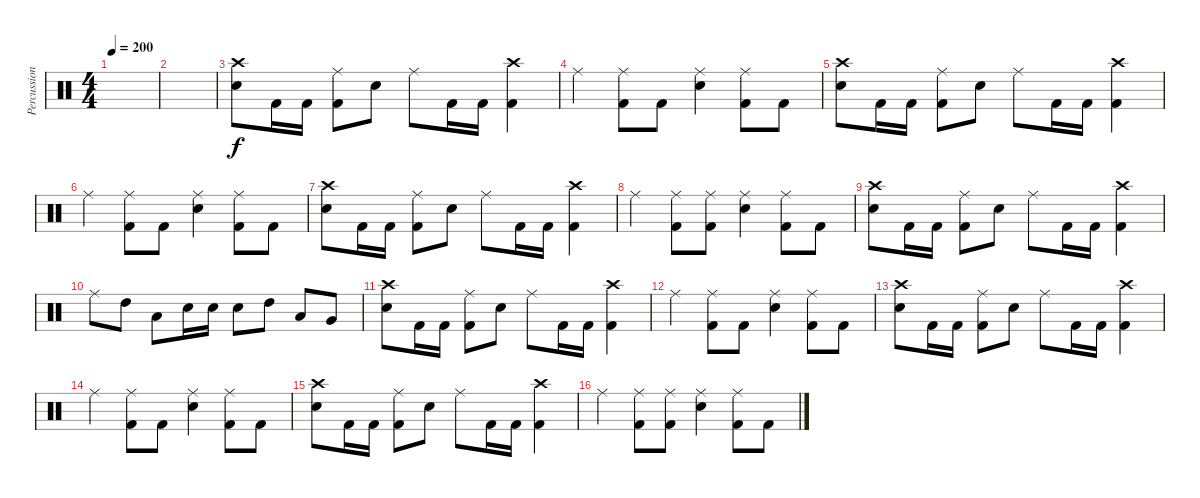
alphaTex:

\track ("Percussion" "Percussion") {instrument percussion}
\staff {score}
\articulation defaults
\ts (4 4)
\tempo 200
\clef neutral
\ks c
|
|
("Crash high (hit)" "Snare (hit) 2").8 "Kick (hit) 2".16 "Kick (hit) 2".16 ("Ride (middle)" "Kick (hit) 2").8 "Snare (hit) 2".8 "Ride (middle)".8 "Kick (hit) 2".16 "Kick (hit) 2".16 ("Crash high (hit)" "Kick (hit) 2").4 |
"Ride (middle)".4 ("Ride (middle)" "Kick (hit) 2").8 "Kick (hit) 2".8 ("Ride (middle)" "Snare (hit) 2").4 ("Ride (middle)" "Kick (hit) 2").8 "Kick (hit) 2".8 |
("Crash high (hit)" "Snare (hit) 2").8 "Kick (hit) 2".16 "Kick (hit) 2".16 ("Ride (middle)" "Kick (hit) 2").8 "Snare (hit) 2".8 "Ride (middle)".8 "Kick (hit) 2".16 "Kick (hit) 2".16 ("Crash high (hit)" "Kick (hit) 2").4 |
"Ride (middle)".4 ("Ride (middle)" "Kick (hit) 2").8 "Kick (hit) 2".8 ("Ride (middle)" "Snare (hit) 2").4 ("Ride (middle)" "Kick (hit) 2").8 "Kick (hit) 2".8 |
("Crash high (hit)" "Snare (hit) 2").8 "Kick (hit) 2".16 "Kick (hit) 2".16 ("Ride (middle)" "Kick (hit) 2").8 "Snare (hit) 2".8 "Ride (middle)".8 "Kick (hit) 2".16 "Kick (hit) 2".16 ("Crash high (hit)" "Kick (hit) 2").4 |
"Ride (middle)".4 ("Ride (middle)" "Kick (hit) 2").8 ("Ride (middle)" "Kick (hit) 2").8 ("Ride (middle)" "Snare (hit) 2").4 ("Ride (middle)" "Kick (hit) 2").8 "Kick (hit) 2".8 |
("Crash high (hit)" "Snare (hit) 2").8 "Kick (hit) 2".16 "Kick (hit) 2".16 ("Ride (middle)" "Kick (hit) 2").8 "Snare (hit) 2".8 "Ride (middle)".8 "Kick (hit) 2".16 "Kick (hit) 2".16 ("Crash high (hit)" "Kick (hit) 2").4 |
"Ride (middle)".8 "High Tom (hit)".8 "Low Tom (hit)".8 "Snare (hit) 2".16 "Snare (hit) 2".16 "Snare (hit) 2".8 "High Tom (hit)".8 "Low Tom (hit)".8 "Very Low Tom (hit)".8 |
("Crash high (hit)" "Snare (hit) 2").8 "Kick (hit) 2".16 "Kick (hit) 2".16 ("Ride (middle)" "Kick (hit) 2").8 "Snare (hit) 2".8 "Ride (middle)".8 "Kick (hit) 2".16 "Kick (hit) 2".16 ("Crash high (hit)" "Kick (hit) 2").4 |
"Ride (middle)".4 ("Ride (middle)" "Kick (hit) 2").8 "Kick (hit) 2".8 ("Ride (middle)" "Snare (hit) 2").4 ("Ride (middle)" "Kick (hit) 2").8 "Kick (hit) 2".8 |
("Crash high (hit)" "Snare (hit) 2").8 "Kick (hit) 2".16 "Kick (hit) 2".16 ("Ride (middle)" "Kick (hit) 2").8 "Snare (hit) 2".8 "Ride (middle)".8 "Kick (hit) 2".16 "Kick (hit) 2".16 ("Crash high (hit)" "Kick (hit) 2").4 |
"Ride (middle)".4 ("Ride (middle)" "Kick (hit) 2").8 "Kick (hit) 2".8 ("Ride (middle)" "Snare (hit) 2").4 ("Ride (middle)" "Kick (hit) 2").8 "Kick (hit) 2".8 |
("Crash high (hit)" "Snare (hit) 2").8 "Kick (hit) 2".16 "Kick (hit) 2".16 ("Ride (middle)" "Kick (hit) 2").8 "Snare (hit) 2".8 "Ride (middle)".8 "Kick (hit) 2".16 "Kick (hit) 2".16 ("Crash high (hit)" "Kick (hit) 2").4 |
"Ride (middle)".4 ("Ride (middle)" "Kick (hit) 2").8 ("Ride (middle)" "Kick (hit) 2").8 ("Ride (middle)" "Snare (hit) 2").4 ("Ride (middle)" "Kick (hit) 2").8 "Kick (hit) 2".8
